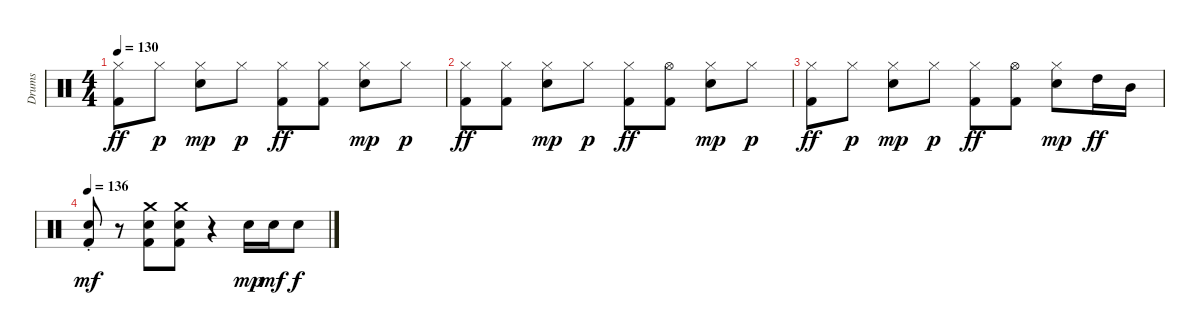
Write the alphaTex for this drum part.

\track ("Drums" "Drums") {instrument percussion}
\staff {score}
\articulation defaults
\ts (4 4)
\tempo 130
\clef neutral
\ks c
("Hi-Hat (closed)" "Kick (hit) 2").8{dy ff} "Hi-Hat (closed)".8{dy p} ("Hi-Hat (closed)" "Snare (hit) 2").8{dy mp} "Hi-Hat (closed)".8{dy p} ("Hi-Hat (closed)" "Kick (hit) 2").8{dy ff} ("Hi-Hat (closed)" "Kick (hit) 2").8 ("Hi-Hat (closed)" "Snare (hit) 2").8{dy mp} "Hi-Hat (closed)".8{dy p} |
("Hi-Hat (closed)" "Kick (hit) 2").8{dy ff} ("Hi-Hat (closed)" "Kick (hit) 2").8 ("Hi-Hat (closed)" "Snare (hit) 2").8{dy mp} "Hi-Hat (closed)".8{dy p} ("Hi-Hat (closed)" "Kick (hit) 2").8{dy ff} ("Hi-Hat (open)" "Kick (hit) 2").8 ("Hi-Hat (closed)" "Snare (hit) 2").8{dy mp} "Hi-Hat (closed)".8{dy p} |
("Hi-Hat (closed)" "Kick (hit) 2").8{dy ff} "Hi-Hat (closed)".8{dy p} ("Hi-Hat (closed)" "Snare (hit) 2").8{dy mp} "Hi-Hat (closed)".8{dy p} ("Hi-Hat (closed)" "Kick (hit) 2").8{dy ff} ("Hi-Hat (open)" "Kick (hit) 2").8 ("Hi-Hat (closed)" "Snare (hit) 2").8{dy mp} "High Tom (hit)".16{dy ff} "Mid Tom (hit)".16 |
\tempo 136
("Snare (hit) 2"{st} "Kick (hit) 2").8{dy mf} r.8 ("Crash medium (hit)" "Snare (hit) 2" "Kick (hit) 2").8 ("Crash medium (hit)" "Snare (hit) 2" "Kick (hit) 2").8 r.4 "Snare (hit) 2".16{dy mp} "Snare (hit) 2".16{dy mf} "Snare (hit) 2".8{dy f}
